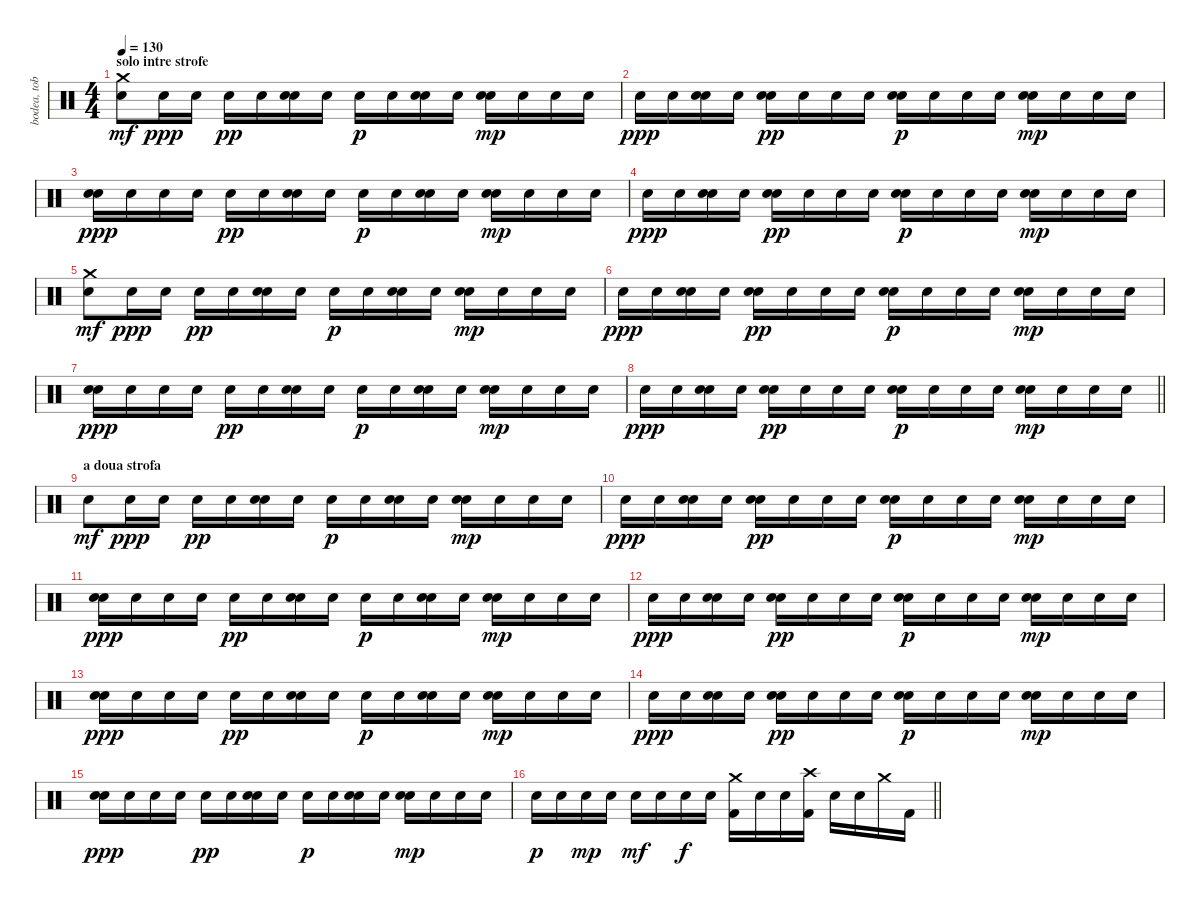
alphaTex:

\track ("bodea, tobe" "bodea, tob") {instrument percussion}
\staff {score}
\articulation defaults
\ts (4 4)
\section ("" "solo intre strofe")
\tempo 130
\clef neutral
\ks c
("Crash medium (hit)" "Electric Snare (hit)").8{dy mf} "Electric Snare (hit)".16{dy ppp} "Electric Snare (hit)".16 "Electric Snare (hit)".16{dy pp} "Electric Snare (hit)".16 ("Electric Snare (hit)" "Electric Snare (hit)").16 "Electric Snare (hit)".16 "Electric Snare (hit)".16{dy p} "Electric Snare (hit)".16 ("Electric Snare (hit)" "Electric Snare (hit)").16 "Electric Snare (hit)".16 ("Electric Snare (hit)" "Electric Snare (hit)").16{dy mp} "Electric Snare (hit)".16 "Electric Snare (hit)".16 "Electric Snare (hit)".16 |
"Electric Snare (hit)".16{dy ppp} "Electric Snare (hit)".16 ("Electric Snare (hit)" "Electric Snare (hit)").16 "Electric Snare (hit)".16 ("Electric Snare (hit)" "Electric Snare (hit)").16{dy pp} "Electric Snare (hit)".16 "Electric Snare (hit)".16 "Electric Snare (hit)".16 ("Electric Snare (hit)" "Electric Snare (hit)").16{dy p} "Electric Snare (hit)".16 "Electric Snare (hit)".16 "Snare (hit)".16 ("Electric Snare (hit)" "Electric Snare (hit)").16{dy mp} "Electric Snare (hit)".16 "Electric Snare (hit)".16 "Electric Snare (hit)".16 |
("Electric Snare (hit)" "Electric Snare (hit)").16{dy ppp} "Electric Snare (hit)".16 "Electric Snare (hit)".16 "Electric Snare (hit)".16 "Electric Snare (hit)".16{dy pp} "Electric Snare (hit)".16 ("Electric Snare (hit)" "Electric Snare (hit)").16 "Electric Snare (hit)".16 "Electric Snare (hit)".16{dy p} "Electric Snare (hit)".16 ("Electric Snare (hit)" "Electric Snare (hit)").16 "Electric Snare (hit)".16 ("Electric Snare (hit)" "Electric Snare (hit)").16{dy mp} "Electric Snare (hit)".16 "Electric Snare (hit)".16 "Electric Snare (hit)".16 |
"Electric Snare (hit)".16{dy ppp} "Electric Snare (hit)".16 ("Electric Snare (hit)" "Electric Snare (hit)").16 "Electric Snare (hit)".16 ("Electric Snare (hit)" "Electric Snare (hit)").16{dy pp} "Electric Snare (hit)".16 "Electric Snare (hit)".16 "Electric Snare (hit)".16 ("Electric Snare (hit)" "Electric Snare (hit)").16{dy p} "Electric Snare (hit)".16 "Electric Snare (hit)".16 "Snare (hit)".16 ("Electric Snare (hit)" "Electric Snare (hit)").16{dy mp} "Electric Snare (hit)".16 "Electric Snare (hit)".16 "Electric Snare (hit)".16 |
("Crash medium (hit)" "Electric Snare (hit)").8{dy mf} "Electric Snare (hit)".16{dy ppp} "Electric Snare (hit)".16 "Electric Snare (hit)".16{dy pp} "Electric Snare (hit)".16 ("Electric Snare (hit)" "Electric Snare (hit)").16 "Electric Snare (hit)".16 "Electric Snare (hit)".16{dy p} "Electric Snare (hit)".16 ("Electric Snare (hit)" "Electric Snare (hit)").16 "Electric Snare (hit)".16 ("Electric Snare (hit)" "Electric Snare (hit)").16{dy mp} "Electric Snare (hit)".16 "Electric Snare (hit)".16 "Electric Snare (hit)".16 |
"Electric Snare (hit)".16{dy ppp} "Electric Snare (hit)".16 ("Electric Snare (hit)" "Electric Snare (hit)").16 "Electric Snare (hit)".16 ("Electric Snare (hit)" "Electric Snare (hit)").16{dy pp} "Electric Snare (hit)".16 "Electric Snare (hit)".16 "Electric Snare (hit)".16 ("Electric Snare (hit)" "Electric Snare (hit)").16{dy p} "Electric Snare (hit)".16 "Electric Snare (hit)".16 "Snare (hit)".16 ("Electric Snare (hit)" "Electric Snare (hit)").16{dy mp} "Electric Snare (hit)".16 "Electric Snare (hit)".16 "Electric Snare (hit)".16 |
("Electric Snare (hit)" "Electric Snare (hit)").16{dy ppp} "Electric Snare (hit)".16 "Electric Snare (hit)".16 "Electric Snare (hit)".16 "Electric Snare (hit)".16{dy pp} "Electric Snare (hit)".16 ("Electric Snare (hit)" "Electric Snare (hit)").16 "Electric Snare (hit)".16 "Electric Snare (hit)".16{dy p} "Electric Snare (hit)".16 ("Electric Snare (hit)" "Electric Snare (hit)").16 "Electric Snare (hit)".16 ("Electric Snare (hit)" "Electric Snare (hit)").16{dy mp} "Electric Snare (hit)".16 "Electric Snare (hit)".16 "Electric Snare (hit)".16 |
\barLineRight lightlight "Electric Snare (hit)".16{dy ppp} "Electric Snare (hit)".16
("Electric Snare (hit)" "Electric Snare (hit)").16 "Electric Snare (hit)".16 ("Electric Snare (hit)" "Electric Snare (hit)").16{dy pp} "Electric Snare (hit)".16 "Electric Snare (hit)".16 "Electric Snare (hit)".16 ("Electric Snare (hit)" "Electric Snare (hit)").16{dy p} "Electric Snare (hit)".16 "Electric Snare (hit)".16 "Snare (hit)".16 ("Electric Snare (hit)" "Electric Snare (hit)").16{dy mp} "Electric Snare (hit)".16 "Electric Snare (hit)".16 "Electric Snare (hit)".16 |
\section ("" "a doua strofa")
"Electric Snare (hit)".8{dy mf} "Electric Snare (hit)".16{dy ppp} "Electric Snare (hit)".16 "Electric Snare (hit)".16{dy pp} "Electric Snare (hit)".16 ("Electric Snare (hit)" "Electric Snare (hit)").16 "Electric Snare (hit)".16 "Electric Snare (hit)".16{dy p} "Electric Snare (hit)".16 ("Electric Snare (hit)" "Electric Snare (hit)").16 "Electric Snare (hit)".16 ("Electric Snare (hit)" "Electric Snare (hit)").16{dy mp} "Electric Snare (hit)".16 "Electric Snare (hit)".16 "Electric Snare (hit)".16 |
"Electric Snare (hit)".16{dy ppp} "Electric Snare (hit)".16 ("Electric Snare (hit)" "Electric Snare (hit)").16 "Electric Snare (hit)".16 ("Electric Snare (hit)" "Electric Snare (hit)").16{dy pp} "Electric Snare (hit)".16 "Electric Snare (hit)".16 "Electric Snare (hit)".16 ("Electric Snare (hit)" "Electric Snare (hit)").16{dy p} "Electric Snare (hit)".16 "Electric Snare (hit)".16 "Snare (hit)".16 ("Electric Snare (hit)" "Electric Snare (hit)").16{dy mp} "Electric Snare (hit)".16 "Electric Snare (hit)".16 "Electric Snare (hit)".16 |
("Electric Snare (hit)" "Electric Snare (hit)").16{dy ppp} "Electric Snare (hit)".16 "Electric Snare (hit)".16 "Electric Snare (hit)".16 "Electric Snare (hit)".16{dy pp} "Electric Snare (hit)".16 ("Electric Snare (hit)" "Electric Snare (hit)").16 "Electric Snare (hit)".16 "Electric Snare (hit)".16{dy p} "Electric Snare (hit)".16 ("Electric Snare (hit)" "Electric Snare (hit)").16 "Electric Snare (hit)".16 ("Electric Snare (hit)" "Electric Snare (hit)").16{dy mp} "Electric Snare (hit)".16 "Electric Snare (hit)".16 "Electric Snare (hit)".16 |
"Electric Snare (hit)".16{dy ppp} "Electric Snare (hit)".16 ("Electric Snare (hit)" "Electric Snare (hit)").16 "Electric Snare (hit)".16 ("Electric Snare (hit)" "Electric Snare (hit)").16{dy pp} "Electric Snare (hit)".16 "Electric Snare (hit)".16 "Electric Snare (hit)".16 ("Electric Snare (hit)" "Electric Snare (hit)").16{dy p} "Electric Snare (hit)".16 "Electric Snare (hit)".16 "Snare (hit)".16 ("Electric Snare (hit)" "Electric Snare (hit)").16{dy mp} "Electric Snare (hit)".16 "Electric Snare (hit)".16 "Electric Snare (hit)".16 |
("Electric Snare (hit)" "Electric Snare (hit)").16{dy ppp} "Electric Snare (hit)".16 "Electric Snare (hit)".16 "Electric Snare (hit)".16 "Electric Snare (hit)".16{dy pp} "Electric Snare (hit)".16 ("Electric Snare (hit)" "Electric Snare (hit)").16 "Electric Snare (hit)".16 "Electric Snare (hit)".16{dy p} "Electric Snare (hit)".16 ("Electric Snare (hit)" "Electric Snare (hit)").16 "Electric Snare (hit)".16 ("Electric Snare (hit)" "Electric Snare (hit)").16{dy mp} "Electric Snare (hit)".16 "Electric Snare (hit)".16 "Electric Snare (hit)".16 |
"Electric Snare (hit)".16{dy ppp} "Electric Snare (hit)".16 ("Electric Snare (hit)" "Electric Snare (hit)").16 "Electric Snare (hit)".16 ("Electric Snare (hit)" "Electric Snare (hit)").16{dy pp} "Electric Snare (hit)".16 "Electric Snare (hit)".16 "Electric Snare (hit)".16 ("Electric Snare (hit)" "Electric Snare (hit)").16{dy p} "Electric Snare (hit)".16 "Electric Snare (hit)".16 "Snare (hit)".16 ("Electric Snare (hit)" "Electric Snare (hit)").16{dy mp} "Electric Snare (hit)".16 "Electric Snare (hit)".16 "Electric Snare (hit)".16 |
("Electric Snare (hit)" "Electric Snare (hit)").16{dy ppp} "Electric Snare (hit)".16 "Electric Snare (hit)".16 "Electric Snare (hit)".16 "Electric Snare (hit)".16{dy pp} "Electric Snare (hit)".16 ("Electric Snare (hit)" "Electric Snare (hit)").16 "Electric Snare (hit)".16 "Electric Snare (hit)".16{dy p} "Electric Snare (hit)".16 ("Electric Snare (hit)" "Electric Snare (hit)").16 "Electric Snare (hit)".16 ("Electric Snare (hit)" "Electric Snare (hit)").16{dy mp} "Electric Snare (hit)".16 "Electric Snare (hit)".16 "Electric Snare (hit)".16 |
\barLineRight lightlight "Electric Snare (hit)".16{dy p} "Electric Snare (hit)".16 "Electric Snare (hit)".16{dy mp} "Electric Snare (hit)".16 "Electric Snare (hit)".16{dy mf} "Electric Snare (hit)".16 "Electric Snare (hit)".16{dy f} "Electric Snare (hit)".16
("Crash medium (hit)" "Kick (hit) 2").16 "Electric Snare (hit)".16 "Electric Snare (hit)".16 ("Crash high (hit)" "Kick (hit) 2").16 "Electric Snare (hit)".16 "Electric Snare (hit)".16 "Crash medium (hit)".16 "Kick (hit) 2".16
